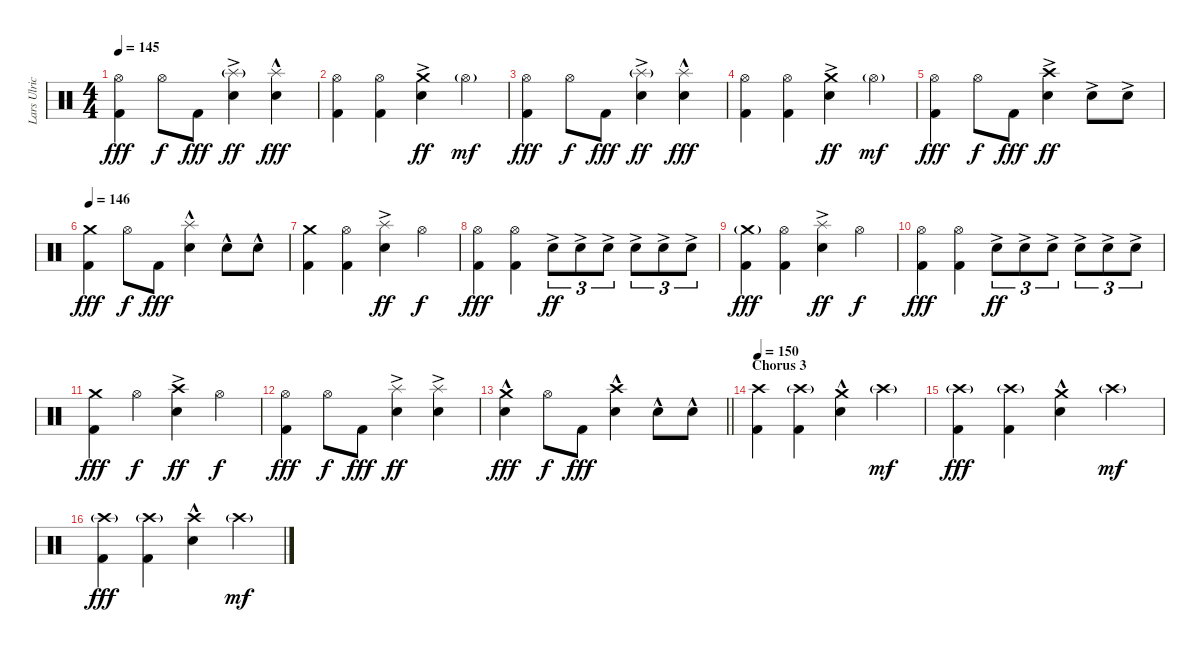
\track ("Lars Ulrich (Drums)" "Lars Ulric") {instrument percussion}
\staff {score}
\articulation defaults
\ts (4 4)
\tempo 145
\clef neutral
\ks c
("Hi-Hat (open)" "Kick (hit) 2").4{dy fff} "Hi-Hat (open)".8{dy f} "Kick (hit) 2".8{dy fff} ("Splash (hit)"{g} "Electric Snare (hit)"{ac}).4{dy ff} ("Splash (hit)" "Electric Snare (hit)"{hac}).4{dy fff} |
("Hi-Hat (open)" "Kick (hit) 2").4 ("Hi-Hat (open)" "Kick (hit) 2").4 ("Crash medium (hit)" "Electric Snare (hit)"{ac}).4{dy ff} "Hi-Hat (open)"{g}.4{dy mf} |
("Hi-Hat (open)" "Kick (hit) 2").4{dy fff} "Hi-Hat (open)".8{dy f} "Kick (hit) 2".8{dy fff} ("Splash (hit)"{g} "Electric Snare (hit)"{ac}).4{dy ff} ("Splash (hit)" "Electric Snare (hit)"{hac}).4{dy fff} |
("Hi-Hat (open)" "Kick (hit) 2").4 ("Hi-Hat (open)" "Kick (hit) 2").4 ("Crash medium (hit)" "Electric Snare (hit)"{ac}).4{dy ff} "Hi-Hat (open)"{g}.4{dy mf} |
("Hi-Hat (open)" "Kick (hit) 2").4{dy fff} "Hi-Hat (open)".8{dy f} "Kick (hit) 2".8{dy fff} ("Crash high (hit)" "Electric Snare (hit)"{ac}).4{dy ff} "Electric Snare (hit)"{ac}.8 "Electric Snare (hit)"{ac}.8 |
\tempo 146
("Crash medium (hit)" "Kick (hit) 2").4{dy fff} "Hi-Hat (open)".8{dy f} "Kick (hit) 2".8{dy fff} ("Splash (hit)" "Electric Snare (hit)"{hac}).4 "Electric Snare (hit)"{hac}.8 "Electric Snare (hit)"{hac}.8 |
("Crash medium (hit)" "Kick (hit) 2").4 ("Hi-Hat (open)" "Kick (hit) 2").4 ("Splash (hit)" "Electric Snare (hit)"{ac}).4{dy ff} "Hi-Hat (open)".4{dy f} |
("Hi-Hat (open)" "Kick (hit) 2").4{dy fff} ("Hi-Hat (open)" "Kick (hit) 2").4 "Electric Snare (hit)"{ac}.8{tu (3 2) dy ff} "Electric Snare (hit)"{ac}.8{tu (3 2)} "Electric Snare (hit)"{ac}.8{tu (3 2)} "Electric Snare (hit)"{ac}.8{tu (3 2)} "Electric Snare (hit)"{ac}.8{tu (3 2)} "Electric Snare (hit)"{ac}.8{tu (3 2)} |
("Crash medium (hit)"{g} "Kick (hit) 2").4{dy fff} ("Hi-Hat (open)" "Kick (hit) 2").4 ("Splash (hit)" "Electric Snare (hit)"{ac}).4{dy ff} "Hi-Hat (open)".4{dy f} |
("Hi-Hat (open)" "Kick (hit) 2").4{dy fff} ("Hi-Hat (open)" "Kick (hit) 2").4 "Electric Snare (hit)"{ac}.8{tu (3 2) dy ff} "Electric Snare (hit)"{ac}.8{tu (3 2)} "Electric Snare (hit)"{ac}.8{tu (3 2)} "Electric Snare (hit)"{ac}.8{tu (3 2)} "Electric Snare (hit)"{ac}.8{tu (3 2)} "Electric Snare (hit)"{ac}.8{tu (3 2)} |
("Crash medium (hit)" "Kick (hit) 2").4{dy fff} "Hi-Hat (open)".4{dy f} ("Crash high (hit)" "Electric Snare (hit)"{ac}).4{dy ff} "Hi-Hat (open)".4{dy f} |
("Hi-Hat (open)" "Kick (hit) 2").4{dy fff} "Hi-Hat (open)".8{dy f} "Kick (hit) 2".8{dy fff} ("Splash (hit)" "Electric Snare (hit)"{ac}).4{dy ff} ("Splash (hit)" "Electric Snare (hit)"{ac}).4 |
\barLineRight lightlight
("Crash medium (hit)" "Electric Snare (hit)"{hac}).4{dy fff} "Hi-Hat (open)".8{dy f} "Kick (hit) 2".8{dy fff} ("Crash high (hit)" "Electric Snare (hit)"{hac}).4 "Electric Snare (hit)"{hac}.8 "Electric Snare (hit)"{hac}.8 |
\section ("" "Chorus 3")
\tempo 150
("Crash high (hit)" "Kick (hit) 2").4 ("Crash high (hit)"{g} "Kick (hit) 2").4 ("Crash medium (hit)" "Electric Snare (hit)"{hac}).4 "Crash high (hit)"{g}.4{dy mf} |
("Crash high (hit)"{g} "Kick (hit) 2").4{dy fff} ("Crash high (hit)"{g} "Kick (hit) 2").4 ("Crash medium (hit)" "Electric Snare (hit)"{hac}).4 "Crash high (hit)"{g}.4{dy mf} |
("Crash high (hit)"{g} "Kick (hit) 2").4{dy fff} ("Crash high (hit)"{g} "Kick (hit) 2").4 ("Crash high (hit)" "Electric Snare (hit)"{hac}).4 "Crash high (hit)"{g}.4{dy mf}
